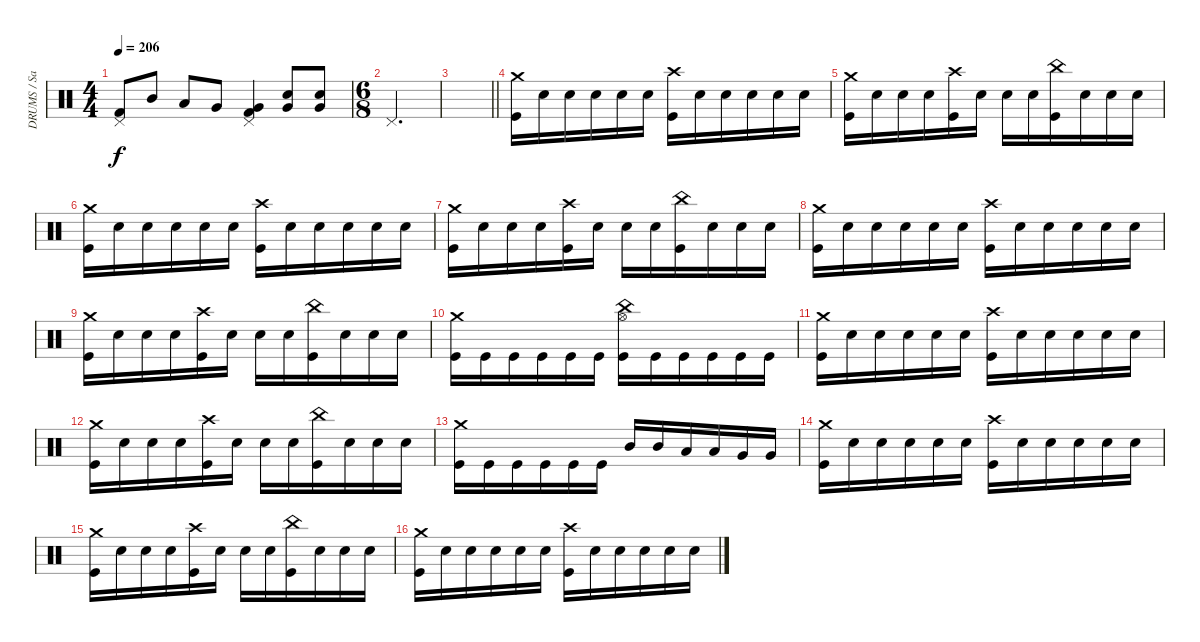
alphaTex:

\track ("DRUMS / Sasha" "DRUMS / Sa") {instrument percussion}
\staff {score}
\articulation defaults
\ts (4 4)
\tempo 206
\clef neutral
\ks c
("Pedal Hi-Hat (hit)" "Kick (hit) 2").8{dy f} "Mid Tom (hit)".8 "Low Tom (hit)".8 "Very Low Tom (hit)".8 ("Pedal Hi-Hat (hit)" "Very Low Tom (hit)" "Kick (hit) 2").4 ("Electric Snare (hit)" "Very Low Tom (hit)").8 ("Electric Snare (hit)" "Very Low Tom (hit)").8 |
\ts (6 8)
"Pedal Hi-Hat (hit)".2{d} |
\barLineRight lightlight
|
("Kick (hit)" "Crash medium (hit)").16 "Snare (hit) 2".16 "Snare (hit) 2".16 "Snare (hit) 2".16 "Snare (hit) 2".16 "Snare (hit) 2".16 ("Kick (hit)" "Crash high (hit)").16 "Snare (hit) 2".16 "Snare (hit) 2".16 "Snare (hit) 2".16 "Snare (hit) 2".16 "Snare (hit) 2".16 |
("Kick (hit)" "Crash medium (hit)").16 "Snare (hit) 2".16 "Snare (hit) 2".16 "Snare (hit) 2".16 ("Kick (hit)" "Crash high (hit)").16 "Snare (hit) 2".16 "Snare (hit) 2".16 "Snare (hit) 2".16 ("Kick (hit)" "China (hit)").16 "Snare (hit) 2".16 "Snare (hit) 2".16 "Snare (hit) 2".16 |
("Kick (hit)" "Crash medium (hit)").16 "Snare (hit) 2".16 "Snare (hit) 2".16 "Snare (hit) 2".16 "Snare (hit) 2".16 "Snare (hit) 2".16 ("Kick (hit)" "Crash high (hit)").16 "Snare (hit) 2".16 "Snare (hit) 2".16 "Snare (hit) 2".16 "Snare (hit) 2".16 "Snare (hit) 2".16 |
("Kick (hit)" "Crash medium (hit)").16 "Snare (hit) 2".16 "Snare (hit) 2".16 "Snare (hit) 2".16 ("Kick (hit)" "Crash high (hit)").16 "Snare (hit) 2".16 "Snare (hit) 2".16 "Snare (hit) 2".16 ("Kick (hit)" "China (hit)").16 "Snare (hit) 2".16 "Snare (hit) 2".16 "Snare (hit) 2".16 |
("Kick (hit)" "Crash medium (hit)").16 "Snare (hit) 2".16 "Snare (hit) 2".16 "Snare (hit) 2".16 "Snare (hit) 2".16 "Snare (hit) 2".16 ("Kick (hit)" "Crash high (hit)").16 "Snare (hit) 2".16 "Snare (hit) 2".16 "Snare (hit) 2".16 "Snare (hit) 2".16 "Snare (hit) 2".16 |
("Kick (hit)" "Crash medium (hit)").16 "Snare (hit) 2".16 "Snare (hit) 2".16 "Snare (hit) 2".16 ("Kick (hit)" "Crash high (hit)").16 "Snare (hit) 2".16 "Snare (hit) 2".16 "Snare (hit) 2".16 ("Kick (hit)" "China (hit)").16 "Snare (hit) 2".16 "Snare (hit) 2".16 "Snare (hit) 2".16 |
("Kick (hit)" "Crash medium (hit)").16 "Kick (hit)".16 "Kick (hit)".16 "Kick (hit)".16 "Kick (hit)".16 "Kick (hit)".16 ("Kick (hit)" "Hi-Hat (open)" "China (hit)").16 "Kick (hit)".16 "Kick (hit)".16 "Kick (hit)".16 "Kick (hit)".16 "Kick (hit)".16 |
("Kick (hit)" "Crash medium (hit)").16 "Snare (hit) 2".16 "Snare (hit) 2".16 "Snare (hit) 2".16 "Snare (hit) 2".16 "Snare (hit) 2".16 ("Kick (hit)" "Crash high (hit)").16 "Snare (hit) 2".16 "Snare (hit) 2".16 "Snare (hit) 2".16 "Snare (hit) 2".16 "Snare (hit) 2".16 |
("Kick (hit)" "Crash medium (hit)").16 "Snare (hit) 2".16 "Snare (hit) 2".16 "Snare (hit) 2".16 ("Kick (hit)" "Crash high (hit)").16 "Snare (hit) 2".16 "Snare (hit) 2".16 "Snare (hit) 2".16 ("Kick (hit)" "China (hit)").16 "Snare (hit) 2".16 "Snare (hit) 2".16 "Snare (hit) 2".16 |
("Kick (hit)" "Crash medium (hit)").16 "Kick (hit)".16 "Kick (hit)".16 "Kick (hit)".16 "Kick (hit)".16 "Kick (hit)".16 "Mid Tom (hit)".16 "Mid Tom (hit)".16 "Low Tom (hit)".16 "Low Tom (hit)".16 "Very Low Tom (hit)".16 "Very Low Tom (hit)".16 |
("Kick (hit)" "Crash medium (hit)").16 "Snare (hit) 2".16 "Snare (hit) 2".16 "Snare (hit) 2".16 "Snare (hit) 2".16 "Snare (hit) 2".16 ("Kick (hit)" "Crash high (hit)").16 "Snare (hit) 2".16 "Snare (hit) 2".16 "Snare (hit) 2".16 "Snare (hit) 2".16 "Snare (hit) 2".16 |
("Kick (hit)" "Crash medium (hit)").16 "Snare (hit) 2".16 "Snare (hit) 2".16 "Snare (hit) 2".16 ("Kick (hit)" "Crash high (hit)").16 "Snare (hit) 2".16 "Snare (hit) 2".16 "Snare (hit) 2".16 ("Kick (hit)" "China (hit)").16 "Snare (hit) 2".16 "Snare (hit) 2".16 "Snare (hit) 2".16 |
("Kick (hit)" "Crash medium (hit)").16 "Snare (hit) 2".16 "Snare (hit) 2".16 "Snare (hit) 2".16 "Snare (hit) 2".16 "Snare (hit) 2".16 ("Kick (hit)" "Crash high (hit)").16 "Snare (hit) 2".16 "Snare (hit) 2".16 "Snare (hit) 2".16 "Snare (hit) 2".16 "Snare (hit) 2".16
